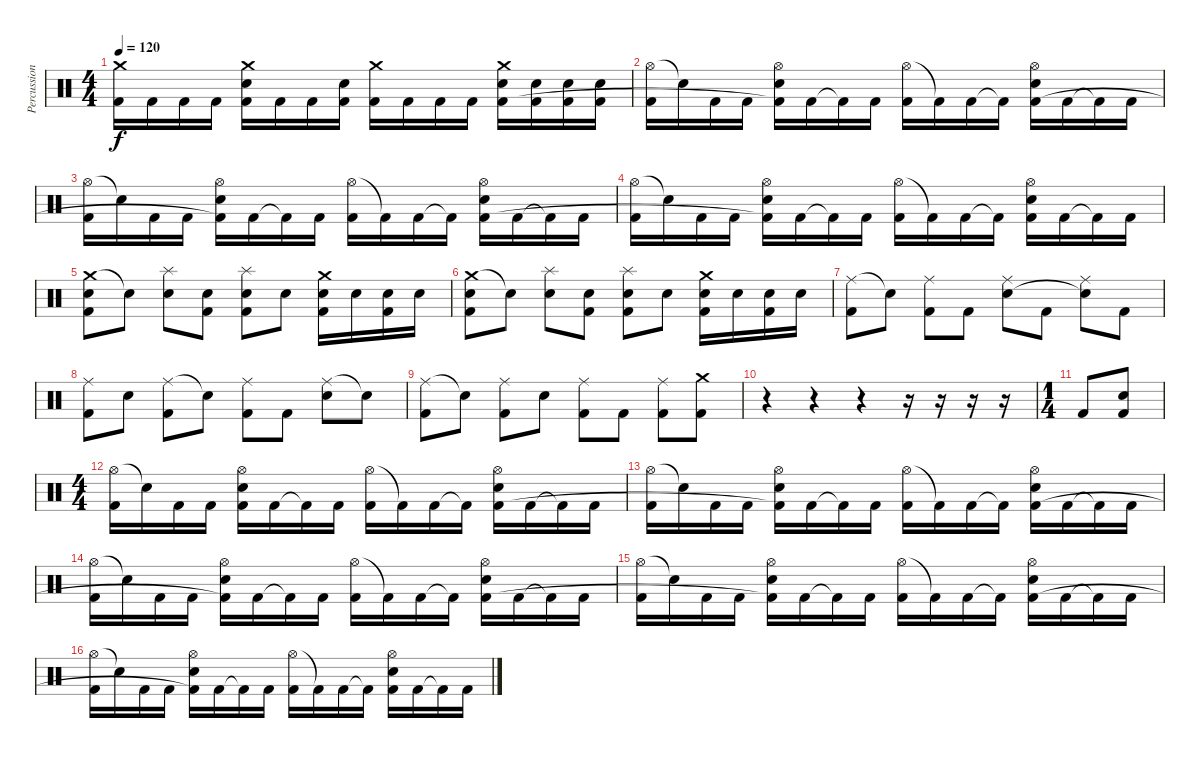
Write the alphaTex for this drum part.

\track ("Percussion" "Percussion") {instrument percussion}
\staff {score}
\articulation defaults
\ts (4 4)
\tempo 120
\clef neutral
\ks c
("Crash medium (hit)" "Kick (hit) 2").16{dy f} "Kick (hit) 2".16 "Kick (hit) 2".16 "Kick (hit) 2".16 ("Crash medium (hit)" "Electric Snare (hit)" "Kick (hit) 2").16 "Kick (hit) 2".16 "Kick (hit) 2".16 ("Electric Snare (hit)" "Kick (hit) 2").16 ("Crash medium (hit)" "Kick (hit) 2").16 "Kick (hit) 2".16 "Kick (hit) 2".16 "Kick (hit) 2".16 ("Crash medium (hit)" "Electric Snare (hit)" "Kick (hit) 2").16 ("Electric Snare (hit)" "Kick (hit) 2").16 ("Electric Snare (hit)" "Kick (hit) 2").16 ("Electric Snare (hit)" "Kick (hit) 2").16 |
("Hi-Hat (open)" "Kick (hit) 2").16 "Snare (hit)"{t}.16 "Kick (hit) 2".16 "Kick (hit) 2".16 ("Hi-Hat (open)" "Electric Snare (hit)" "Kick (hit) 2"{t}).16 "Kick (hit) 2".16 "Kick (hit) 2"{t}.16 "Kick (hit) 2".16 ("Hi-Hat (open)" "Kick (hit) 2").16 "Kick (hit) 2"{t}.16 "Kick (hit) 2".16 "Kick (hit) 2"{t}.16 ("Hi-Hat (open)" "Electric Snare (hit)" "Kick (hit) 2").16 "Kick (hit) 2".16 "Kick (hit) 2"{t}.16 "Kick (hit) 2".16 |
("Hi-Hat (open)" "Kick (hit) 2").16 "Snare (hit)"{t}.16 "Kick (hit) 2".16 "Kick (hit) 2".16 ("Hi-Hat (open)" "Electric Snare (hit)" "Kick (hit) 2"{t}).16 "Kick (hit) 2".16 "Kick (hit) 2"{t}.16 "Kick (hit) 2".16 ("Hi-Hat (open)" "Kick (hit) 2").16 "Kick (hit) 2"{t}.16 "Kick (hit) 2".16 "Kick (hit) 2"{t}.16 ("Hi-Hat (open)" "Electric Snare (hit)" "Kick (hit) 2").16 "Kick (hit) 2".16 "Kick (hit) 2"{t}.16 "Kick (hit) 2".16 |
("Hi-Hat (open)" "Kick (hit) 2").16 "Snare (hit)"{t}.16 "Kick (hit) 2".16 "Kick (hit) 2".16 ("Hi-Hat (open)" "Electric Snare (hit)" "Kick (hit) 2"{t}).16 "Kick (hit) 2".16 "Kick (hit) 2"{t}.16 "Kick (hit) 2".16 ("Hi-Hat (open)" "Kick (hit) 2").16 "Kick (hit) 2"{t}.16 "Kick (hit) 2".16 "Kick (hit) 2"{t}.16 ("Hi-Hat (open)" "Electric Snare (hit)" "Kick (hit) 2").16 "Kick (hit) 2".16 "Kick (hit) 2"{t}.16 "Kick (hit) 2".16 |
("Crash medium (hit)" "Electric Snare (hit)" "Kick (hit) 2").8 "Snare (hit)"{t}.8 ("Splash (hit)" "Electric Snare (hit)").8 ("Electric Snare (hit)" "Kick (hit) 2").8 ("Splash (hit)" "Electric Snare (hit)" "Kick (hit) 2").8 "Electric Snare (hit)".8 ("Crash medium (hit)" "Electric Snare (hit)" "Kick (hit) 2").16 "Electric Snare (hit)".16 ("Electric Snare (hit)" "Kick (hit) 2").16 "Electric Snare (hit)".16 |
("Crash medium (hit)" "Electric Snare (hit)" "Kick (hit) 2").8 "Snare (hit)"{t}.8 ("Splash (hit)" "Electric Snare (hit)").8 ("Electric Snare (hit)" "Kick (hit) 2").8 ("Splash (hit)" "Electric Snare (hit)" "Kick (hit) 2").8 "Electric Snare (hit)".8 ("Crash medium (hit)" "Electric Snare (hit)" "Kick (hit) 2").16 "Electric Snare (hit)".16 ("Electric Snare (hit)" "Kick (hit) 2").16 "Electric Snare (hit)".16 |
("Ride (middle)" "Kick (hit) 2").8 "Snare (hit)"{t}.8 ("Ride (middle)" "Kick (hit) 2").8 "Kick (hit) 2".8 ("Ride (middle)" "Electric Snare (hit)").8 "Kick (hit) 2".8 ("Ride (middle)" "Snare (hit)"{t}).8 "Kick (hit) 2".8 |
("Ride (middle)" "Kick (hit) 2").8 "Electric Snare (hit)".8 ("Ride (middle)" "Kick (hit) 2").8 "Snare (hit)"{t}.8 ("Ride (middle)" "Kick (hit) 2").8 "Kick (hit) 2".8 ("Ride (middle)" "Electric Snare (hit)").8 "Snare (hit)"{t}.8 |
("Ride (middle)" "Kick (hit) 2").8 "Snare (hit)"{t}.8 ("Ride (middle)" "Kick (hit) 2").8 "Electric Snare (hit)".8 ("Ride (middle)" "Kick (hit) 2").8 "Kick (hit) 2".8 ("Ride (middle)" "Kick (hit) 2").8 ("Crash medium (hit)" "Kick (hit) 2").8 |
r.4 r.4 r.4 r.16 r.16 r.16 r.16 |
\ts (1 4)
"Kick (hit) 2".8 ("Kick (hit) 2" "Electric Snare (hit)").8 |
\ts (4 4)
("Hi-Hat (open)" "Kick (hit) 2").16 "Snare (hit)"{t}.16 "Kick (hit) 2".16 "Kick (hit) 2".16 ("Hi-Hat (open)" "Electric Snare (hit)" "Kick (hit) 2").16 "Kick (hit) 2".16 "Kick (hit) 2"{t}.16 "Kick (hit) 2".16 ("Hi-Hat (open)" "Kick (hit) 2").16 "Kick (hit) 2"{t}.16 "Kick (hit) 2".16 "Kick (hit) 2"{t}.16 ("Hi-Hat (open)" "Electric Snare (hit)" "Kick (hit) 2").16 "Kick (hit) 2".16 "Kick (hit) 2"{t}.16 "Kick (hit) 2".16 |
("Hi-Hat (open)" "Kick (hit) 2").16 "Snare (hit)"{t}.16 "Kick (hit) 2".16 "Kick (hit) 2".16 ("Hi-Hat (open)" "Electric Snare (hit)" "Kick (hit) 2"{t}).16 "Kick (hit) 2".16 "Kick (hit) 2"{t}.16 "Kick (hit) 2".16 ("Hi-Hat (open)" "Kick (hit) 2").16 "Kick (hit) 2"{t}.16 "Kick (hit) 2".16 "Kick (hit) 2"{t}.16 ("Hi-Hat (open)" "Electric Snare (hit)" "Kick (hit) 2").16 "Kick (hit) 2".16 "Kick (hit) 2"{t}.16 "Kick (hit) 2".16 |
("Hi-Hat (open)" "Kick (hit) 2").16 "Snare (hit)"{t}.16 "Kick (hit) 2".16 "Kick (hit) 2".16 ("Hi-Hat (open)" "Electric Snare (hit)" "Kick (hit) 2"{t}).16 "Kick (hit) 2".16 "Kick (hit) 2"{t}.16 "Kick (hit) 2".16 ("Hi-Hat (open)" "Kick (hit) 2").16 "Kick (hit) 2"{t}.16 "Kick (hit) 2".16 "Kick (hit) 2"{t}.16 ("Hi-Hat (open)" "Electric Snare (hit)" "Kick (hit) 2").16 "Kick (hit) 2".16 "Kick (hit) 2"{t}.16 "Kick (hit) 2".16 |
("Hi-Hat (open)" "Kick (hit) 2").16 "Snare (hit)"{t}.16 "Kick (hit) 2".16 "Kick (hit) 2".16 ("Hi-Hat (open)" "Electric Snare (hit)" "Kick (hit) 2"{t}).16 "Kick (hit) 2".16 "Kick (hit) 2"{t}.16 "Kick (hit) 2".16 ("Hi-Hat (open)" "Kick (hit) 2").16 "Kick (hit) 2"{t}.16 "Kick (hit) 2".16 "Kick (hit) 2"{t}.16 ("Hi-Hat (open)" "Electric Snare (hit)" "Kick (hit) 2").16 "Kick (hit) 2".16 "Kick (hit) 2"{t}.16 "Kick (hit) 2".16 |
("Hi-Hat (open)" "Kick (hit) 2").16 "Snare (hit)"{t}.16 "Kick (hit) 2".16 "Kick (hit) 2".16 ("Hi-Hat (open)" "Electric Snare (hit)" "Kick (hit) 2"{t}).16 "Kick (hit) 2".16 "Kick (hit) 2"{t}.16 "Kick (hit) 2".16 ("Hi-Hat (open)" "Kick (hit) 2").16 "Kick (hit) 2"{t}.16 "Kick (hit) 2".16 "Kick (hit) 2"{t}.16 ("Hi-Hat (open)" "Electric Snare (hit)" "Kick (hit) 2").16 "Kick (hit) 2".16 "Kick (hit) 2"{t}.16 "Kick (hit) 2".16
